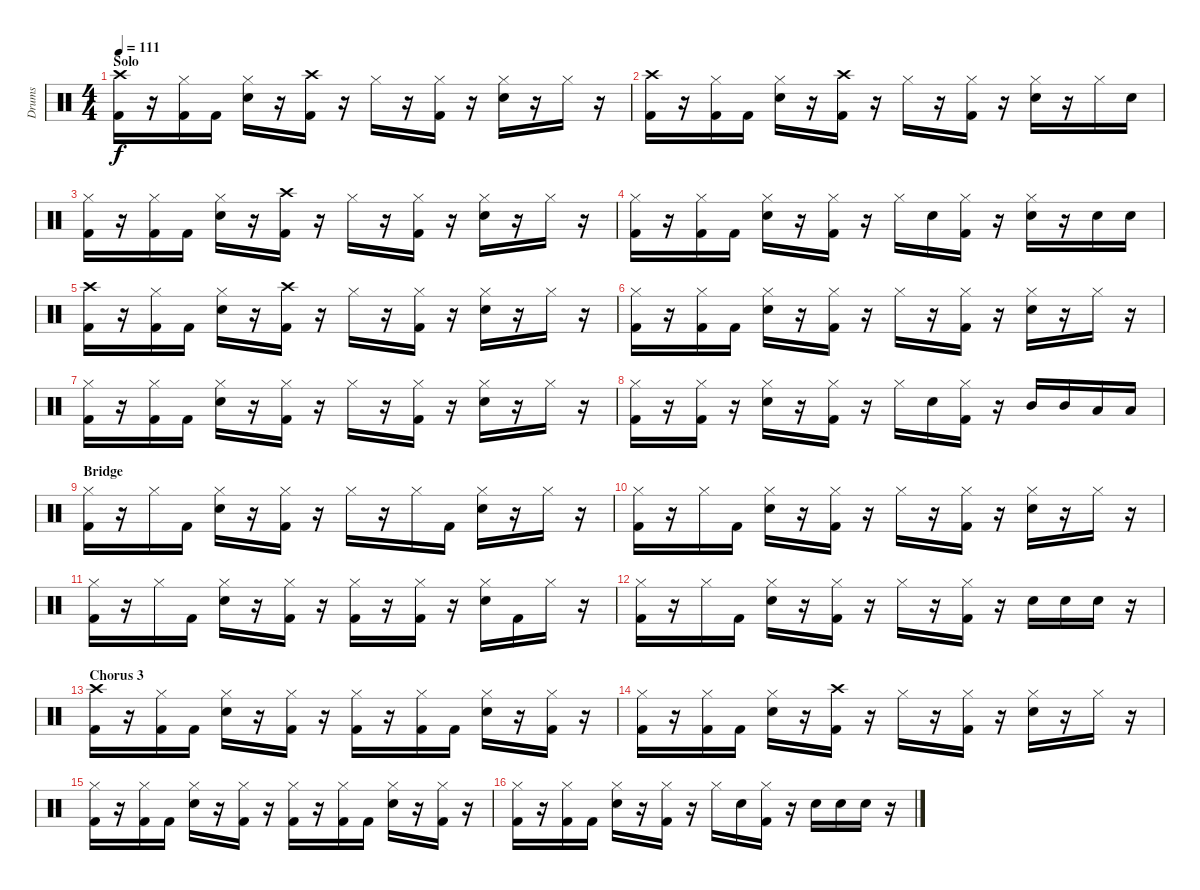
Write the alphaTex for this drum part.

\track ("Drums" "Drums") {instrument percussion}
\staff {score}
\articulation defaults
\ts (4 4)
\section ("" "Solo")
\tempo 111
\clef neutral
\ks c
("Crash high (hit)" "Kick (hit) 2").16{dy f} r.16 ("Hi-Hat (closed)" "Kick (hit) 2").16 "Kick (hit) 2".16 ("Hi-Hat (closed)" "Snare (hit) 2").16 r.16 ("Crash high (hit)" "Kick (hit) 2").16 r.16 "Hi-Hat (closed)".16 r.16 ("Hi-Hat (closed)" "Kick (hit) 2").16 r.16 ("Hi-Hat (closed)" "Snare (hit) 2").16 r.16 "Hi-Hat (closed)".16 r.16 |
("Crash high (hit)" "Kick (hit) 2").16 r.16 ("Hi-Hat (closed)" "Kick (hit) 2").16 "Kick (hit) 2".16 ("Hi-Hat (closed)" "Snare (hit) 2").16 r.16 ("Crash high (hit)" "Kick (hit) 2").16 r.16 "Hi-Hat (closed)".16 r.16 ("Hi-Hat (closed)" "Kick (hit) 2").16 r.16 ("Hi-Hat (closed)" "Snare (hit) 2").16 r.16 "Hi-Hat (closed)".16 "Snare (hit) 2".16 |
("Hi-Hat (closed)" "Kick (hit) 2").16 r.16 ("Hi-Hat (closed)" "Kick (hit) 2").16 "Kick (hit) 2".16 ("Hi-Hat (closed)" "Snare (hit) 2").16 r.16 ("Crash high (hit)" "Kick (hit) 2").16 r.16 "Hi-Hat (closed)".16 r.16 ("Hi-Hat (closed)" "Kick (hit) 2").16 r.16 ("Hi-Hat (closed)" "Snare (hit) 2").16 r.16 "Hi-Hat (closed)".16 r.16 |
("Hi-Hat (closed)" "Kick (hit) 2").16 r.16 ("Hi-Hat (closed)" "Kick (hit) 2").16 "Kick (hit) 2".16 ("Hi-Hat (closed)" "Snare (hit) 2").16 r.16 ("Hi-Hat (closed)" "Kick (hit) 2").16 r.16 "Hi-Hat (closed)".16 "Snare (hit) 2".16 ("Hi-Hat (closed)" "Kick (hit) 2").16 r.16 ("Hi-Hat (closed)" "Snare (hit) 2").16 r.16 "Snare (hit) 2".16 "Snare (hit) 2".16 |
("Crash high (hit)" "Kick (hit) 2").16 r.16 ("Hi-Hat (closed)" "Kick (hit) 2").16 "Kick (hit) 2".16 ("Hi-Hat (closed)" "Snare (hit) 2").16 r.16 ("Crash high (hit)" "Kick (hit) 2").16 r.16 "Hi-Hat (closed)".16 r.16 ("Hi-Hat (closed)" "Kick (hit) 2").16 r.16 ("Hi-Hat (closed)" "Snare (hit) 2").16 r.16 "Hi-Hat (closed)".16 r.16 |
("Hi-Hat (closed)" "Kick (hit) 2").16 r.16 ("Hi-Hat (closed)" "Kick (hit) 2").16 "Kick (hit) 2".16 ("Hi-Hat (closed)" "Snare (hit) 2").16 r.16 ("Hi-Hat (closed)" "Kick (hit) 2").16 r.16 "Hi-Hat (closed)".16 r.16 ("Hi-Hat (closed)" "Kick (hit) 2").16 r.16 ("Hi-Hat (closed)" "Snare (hit) 2").16 r.16 "Hi-Hat (closed)".16 r.16 |
("Hi-Hat (closed)" "Kick (hit) 2").16 r.16 ("Hi-Hat (closed)" "Kick (hit) 2").16 "Kick (hit) 2".16 ("Hi-Hat (closed)" "Snare (hit) 2").16 r.16 ("Hi-Hat (closed)" "Kick (hit) 2").16 r.16 "Hi-Hat (closed)".16 r.16 ("Hi-Hat (closed)" "Kick (hit) 2").16 r.16 ("Hi-Hat (closed)" "Snare (hit) 2").16 r.16 "Hi-Hat (closed)".16 r.16 |
("Hi-Hat (closed)" "Kick (hit) 2").16 r.16 ("Hi-Hat (closed)" "Kick (hit) 2").16 r.16 ("Hi-Hat (closed)" "Snare (hit) 2").16 r.16 ("Hi-Hat (closed)" "Kick (hit) 2").16 r.16 "Hi-Hat (closed)".16 "Snare (hit) 2".16 ("Hi-Hat (closed)" "Kick (hit) 2").16 r.16 "Mid Tom (hit)".16 "Mid Tom (hit)".16 "Low Tom (hit)".16 "Low Tom (hit)".16 |
\section ("" "Bridge")
("Hi-Hat (closed)" "Kick (hit) 2").16 r.16 "Hi-Hat (closed)".16 "Kick (hit) 2".16 ("Hi-Hat (closed)" "Snare (hit) 2").16 r.16 ("Hi-Hat (closed)" "Kick (hit) 2").16 r.16 "Hi-Hat (closed)".16 r.16 "Hi-Hat (closed)".16 "Kick (hit) 2".16 ("Hi-Hat (closed)" "Snare (hit) 2").16 r.16 "Hi-Hat (closed)".16 r.16 |
("Hi-Hat (closed)" "Kick (hit) 2").16 r.16 "Hi-Hat (closed)".16 "Kick (hit) 2".16 ("Hi-Hat (closed)" "Snare (hit) 2").16 r.16 ("Hi-Hat (closed)" "Kick (hit) 2").16 r.16 "Hi-Hat (closed)".16 r.16 ("Hi-Hat (closed)" "Kick (hit) 2").16 r.16 ("Hi-Hat (closed)" "Snare (hit) 2").16 r.16 "Hi-Hat (closed)".16 r.16 |
("Hi-Hat (closed)" "Kick (hit) 2").16 r.16 "Hi-Hat (closed)".16 "Kick (hit) 2".16 ("Hi-Hat (closed)" "Snare (hit) 2").16 r.16 ("Hi-Hat (closed)" "Kick (hit) 2").16 r.16 ("Hi-Hat (closed)" "Kick (hit) 2").16 r.16 ("Hi-Hat (closed)" "Kick (hit) 2").16 r.16 ("Hi-Hat (closed)" "Snare (hit) 2").16 "Kick (hit) 2".16 "Hi-Hat (closed)".16 r.16 |
("Hi-Hat (closed)" "Kick (hit) 2").16 r.16 "Hi-Hat (closed)".16 "Kick (hit) 2".16 ("Hi-Hat (closed)" "Snare (hit) 2").16 r.16 ("Hi-Hat (closed)" "Kick (hit) 2").16 r.16 "Hi-Hat (closed)".16 r.16 ("Hi-Hat (closed)" "Kick (hit) 2").16 r.16 "Snare (hit) 2".16 "Snare (hit) 2".16 "Snare (hit) 2".16 r.16 |
\section ("" "Chorus 3")
("Crash high (hit)" "Kick (hit) 2").16 r.16 ("Hi-Hat (closed)" "Kick (hit) 2").16 "Kick (hit) 2".16 ("Hi-Hat (closed)" "Snare (hit) 2").16 r.16 ("Hi-Hat (closed)" "Kick (hit) 2").16 r.16 ("Hi-Hat (closed)" "Kick (hit) 2").16 r.16 ("Hi-Hat (closed)" "Kick (hit) 2").16 "Kick (hit) 2".16 ("Hi-Hat (closed)" "Snare (hit) 2").16 r.16 ("Hi-Hat (closed)" "Kick (hit) 2").16 r.16 |
("Hi-Hat (closed)" "Kick (hit) 2").16 r.16 ("Hi-Hat (closed)" "Kick (hit) 2").16 "Kick (hit) 2".16 ("Hi-Hat (closed)" "Snare (hit) 2").16 r.16 ("Crash high (hit)" "Kick (hit) 2").16 r.16 "Hi-Hat (closed)".16 r.16 ("Hi-Hat (closed)" "Kick (hit) 2").16 r.16 ("Hi-Hat (closed)" "Snare (hit) 2").16 r.16 "Hi-Hat (closed)".16 r.16 |
("Hi-Hat (closed)" "Kick (hit) 2").16 r.16 ("Hi-Hat (closed)" "Kick (hit) 2").16 "Kick (hit) 2".16 ("Hi-Hat (closed)" "Snare (hit) 2").16 r.16 ("Hi-Hat (closed)" "Kick (hit) 2").16 r.16 ("Hi-Hat (closed)" "Kick (hit) 2").16 r.16 ("Hi-Hat (closed)" "Kick (hit) 2").16 "Kick (hit) 2".16 ("Hi-Hat (closed)" "Snare (hit) 2").16 r.16 ("Hi-Hat (closed)" "Kick (hit) 2").16 r.16 |
("Hi-Hat (closed)" "Kick (hit) 2").16 r.16 ("Hi-Hat (closed)" "Kick (hit) 2").16 "Kick (hit) 2".16 ("Hi-Hat (closed)" "Snare (hit) 2").16 r.16 ("Hi-Hat (closed)" "Kick (hit) 2").16 r.16 "Hi-Hat (closed)".16 "Snare (hit) 2".16 ("Hi-Hat (closed)" "Kick (hit) 2").16 r.16 "Snare (hit) 2".16 "Snare (hit) 2".16 "Snare (hit) 2".16 r.16
